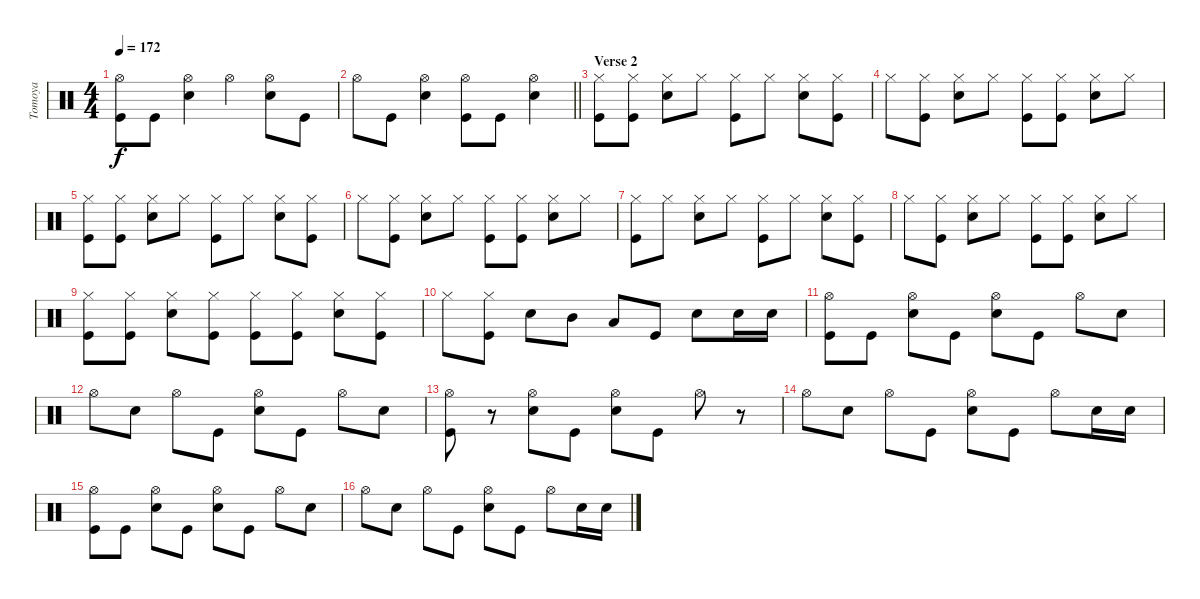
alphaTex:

\track ("Tomoya" "Tomoya") {instrument percussion}
\staff {score}
\articulation defaults
\ts (4 4)
\tempo 172
\clef neutral
\ks c
("Hi-Hat (open)" "Kick (hit)").8{dy f} "Kick (hit)".8 ("Hi-Hat (open)" "Snare (hit) 2").4 "Hi-Hat (open)".4 ("Hi-Hat (open)" "Snare (hit) 2").8 "Kick (hit)".8 |
\barLineRight lightlight "Hi-Hat (open)".8 "Kick (hit)".8
("Hi-Hat (open)" "Snare (hit) 2").4 ("Hi-Hat (open)" "Kick (hit)").8 "Kick (hit)".8 ("Hi-Hat (open)" "Snare (hit) 2").4 |
\section ("" "Verse 2")
("Hi-Hat (closed)" "Kick (hit)").8 ("Hi-Hat (closed)" "Kick (hit)").8 ("Hi-Hat (closed)" "Snare (hit) 2").8 "Hi-Hat (closed)".8 ("Hi-Hat (closed)" "Kick (hit)").8 "Hi-Hat (closed)".8 ("Hi-Hat (closed)" "Snare (hit) 2").8 ("Hi-Hat (closed)" "Kick (hit)").8 |
"Hi-Hat (closed)".8 ("Hi-Hat (closed)" "Kick (hit)").8 ("Hi-Hat (closed)" "Snare (hit) 2").8 "Hi-Hat (closed)".8 ("Hi-Hat (closed)" "Kick (hit)").8 ("Hi-Hat (closed)" "Kick (hit)").8 ("Hi-Hat (closed)" "Snare (hit) 2").8 "Hi-Hat (closed)".8 |
("Hi-Hat (closed)" "Kick (hit)").8 ("Hi-Hat (closed)" "Kick (hit)").8 ("Hi-Hat (closed)" "Snare (hit) 2").8 "Hi-Hat (closed)".8 ("Hi-Hat (closed)" "Kick (hit)").8 "Hi-Hat (closed)".8 ("Hi-Hat (closed)" "Snare (hit) 2").8 ("Hi-Hat (closed)" "Kick (hit)").8 |
"Hi-Hat (closed)".8 ("Hi-Hat (closed)" "Kick (hit)").8 ("Hi-Hat (closed)" "Snare (hit) 2").8 "Hi-Hat (closed)".8 ("Hi-Hat (closed)" "Kick (hit)").8 ("Hi-Hat (closed)" "Kick (hit)").8 ("Hi-Hat (closed)" "Snare (hit) 2").8 "Hi-Hat (closed)".8 |
("Hi-Hat (closed)" "Kick (hit)").8 "Hi-Hat (closed)".8 ("Hi-Hat (closed)" "Snare (hit) 2").8 "Hi-Hat (closed)".8 ("Hi-Hat (closed)" "Kick (hit)").8 "Hi-Hat (closed)".8 ("Hi-Hat (closed)" "Snare (hit) 2").8 ("Hi-Hat (closed)" "Kick (hit)").8 |
"Hi-Hat (closed)".8 ("Hi-Hat (closed)" "Kick (hit)").8 ("Hi-Hat (closed)" "Snare (hit) 2").8 "Hi-Hat (closed)".8 ("Hi-Hat (closed)" "Kick (hit)").8 ("Hi-Hat (closed)" "Kick (hit)").8 ("Hi-Hat (closed)" "Snare (hit) 2").8 "Hi-Hat (closed)".8 |
("Hi-Hat (closed)" "Kick (hit)").8 ("Hi-Hat (closed)" "Kick (hit)").8 ("Hi-Hat (closed)" "Snare (hit) 2").8 ("Hi-Hat (closed)" "Kick (hit)").8 ("Hi-Hat (closed)" "Kick (hit)").8 ("Hi-Hat (closed)" "Kick (hit)").8 ("Hi-Hat (closed)" "Snare (hit) 2").8 ("Hi-Hat (closed)" "Kick (hit)").8 |
"Hi-Hat (closed)".8 ("Hi-Hat (closed)" "Kick (hit)").8 "Snare (hit) 2".8 "Mid Tom (hit)".8 "Low Tom (hit)".8 "Kick (hit)".8 "Snare (hit) 2".8 "Snare (hit) 2".16 "Snare (hit) 2".16 |
("Hi-Hat (open)" "Kick (hit)").8 "Kick (hit)".8 ("Hi-Hat (open)" "Snare (hit) 2").8 "Kick (hit)".8 ("Hi-Hat (open)" "Snare (hit) 2").8 "Kick (hit)".8 "Hi-Hat (open)".8 "Snare (hit) 2".8 |
"Hi-Hat (open)".8 "Snare (hit) 2".8 "Hi-Hat (open)".8 "Kick (hit)".8 ("Hi-Hat (open)" "Snare (hit) 2").8 "Kick (hit)".8 "Hi-Hat (open)".8 "Snare (hit) 2".8 |
("Hi-Hat (open)" "Kick (hit)").8 r.8 ("Hi-Hat (open)" "Snare (hit) 2").8 "Kick (hit)".8 ("Hi-Hat (open)" "Snare (hit) 2").8 "Kick (hit)".8 "Hi-Hat (open)".8 r.8 |
"Hi-Hat (open)".8 "Snare (hit) 2".8 "Hi-Hat (open)".8 "Kick (hit)".8 ("Hi-Hat (open)" "Snare (hit) 2").8 "Kick (hit)".8 "Hi-Hat (open)".8 "Snare (hit) 2".16 "Snare (hit) 2".16 |
("Hi-Hat (open)" "Kick (hit)").8 "Kick (hit)".8 ("Hi-Hat (open)" "Snare (hit) 2").8 "Kick (hit)".8 ("Hi-Hat (open)" "Snare (hit) 2").8 "Kick (hit)".8 "Hi-Hat (open)".8 "Snare (hit) 2".8 |
"Hi-Hat (open)".8 "Snare (hit) 2".8 "Hi-Hat (open)".8 "Kick (hit)".8 ("Hi-Hat (open)" "Snare (hit) 2").8 "Kick (hit)".8 "Hi-Hat (open)".8 "Snare (hit) 2".16 "Snare (hit) 2".16
